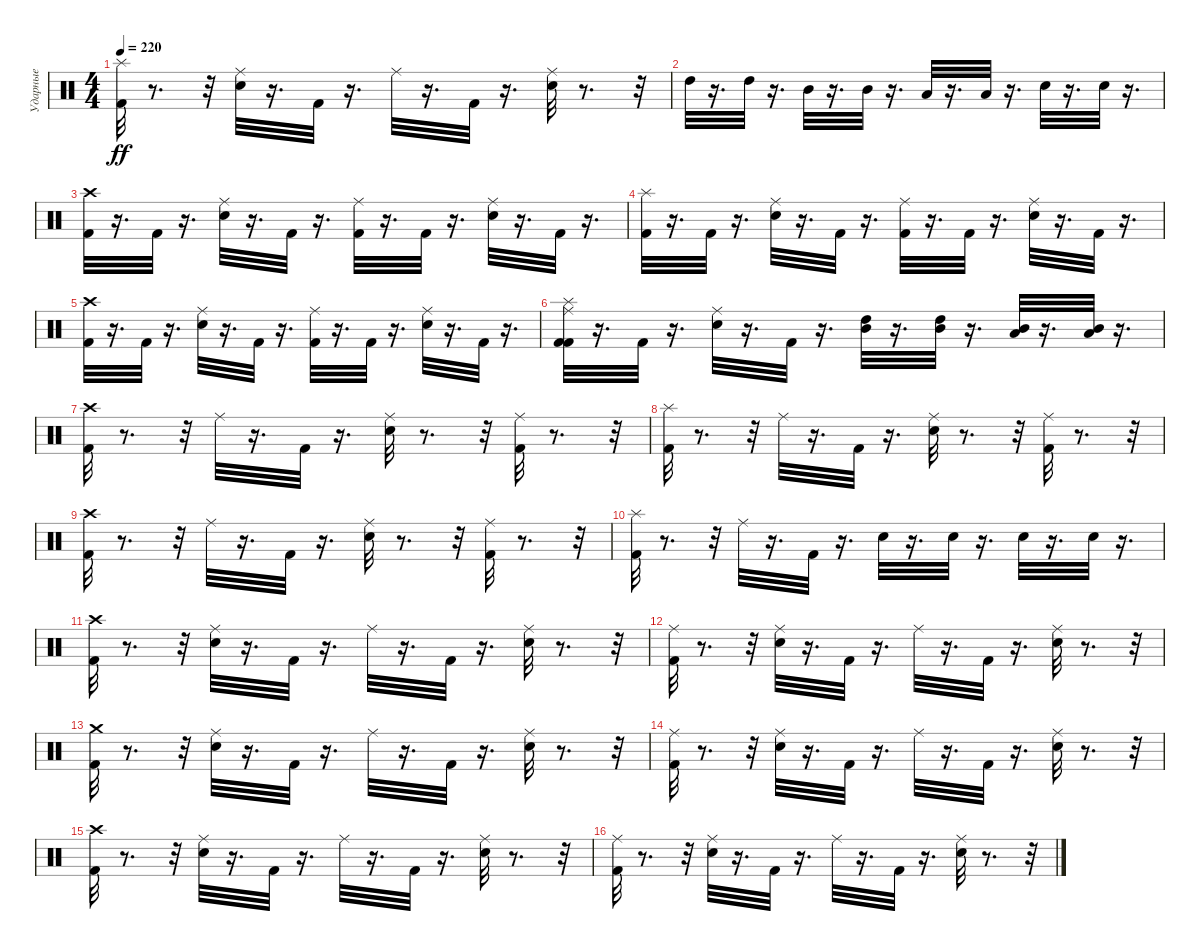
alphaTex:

\track ("Ударные" "Ударные") {instrument percussion}
\staff {score}
\articulation defaults
\ts (4 4)
\tempo 220
\clef neutral
\ks c
("Splash (hit)" "Kick (hit) 2").32{dy ff} r.8{d} r.32 ("Ride (middle)" "Snare (hit) 2").32 r.16{d} "Kick (hit) 2".32 r.16{d} "Ride (middle)".32 r.16{d} "Kick (hit) 2".32 r.16{d} ("Ride (middle)" "Snare (hit) 2").32 r.8{d} r.32 |
"High Tom (hit)".32 r.16{d} "High Tom (hit)".32 r.16{d} "Mid Tom (hit)".32 r.16{d} "Mid Tom (hit)".32 r.16{d} "Low Tom (hit)".32 r.16{d} "Low Tom (hit)".32 r.16{d} "Snare (hit) 2".32 r.16{d} "Snare (hit) 2".32 r.16{d} |
("Crash high (hit)" "Kick (hit) 2").32 r.16{d} "Kick (hit) 2".32 r.16{d} ("Ride (middle)" "Snare (hit) 2").32 r.16{d} "Kick (hit) 2".32 r.16{d} ("Ride (middle)" "Kick (hit) 2").32 r.16{d} "Kick (hit) 2".32 r.16{d} ("Snare (hit) 2" "Ride (middle)").32 r.16{d} "Kick (hit) 2".32 r.16{d} |
("Kick (hit) 2" "Splash (hit)").32 r.16{d} "Kick (hit) 2".32 r.16{d} ("Snare (hit) 2" "Ride (middle)").32 r.16{d} "Kick (hit) 2".32 r.16{d} ("Kick (hit) 2" "Ride (middle)").32 r.16{d} "Kick (hit) 2".32 r.16{d} ("Snare (hit) 2" "Ride (middle)").32 r.16{d} "Kick (hit) 2".32 r.16{d} |
("Crash high (hit)" "Kick (hit) 2").32 r.16{d} "Kick (hit) 2".32 r.16{d} ("Ride (middle)" "Snare (hit) 2").32 r.16{d} "Kick (hit) 2".32 r.16{d} ("Ride (middle)" "Kick (hit) 2").32 r.16{d} "Kick (hit) 2".32 r.16{d} ("Snare (hit) 2" "Ride (middle)").32 r.16{d} "Kick (hit) 2".32 r.16{d} |
("Ride (middle)" "Kick (hit) 2" "Kick (hit) 2" "Splash (hit)").32 r.16{d} "Kick (hit) 2".32 r.16{d} ("Ride (middle)" "Snare (hit) 2").32 r.16{d} "Kick (hit) 2".32 r.16{d} ("Mid Tom (hit)" "High Tom (hit)").32 r.16{d} ("Mid Tom (hit)" "High Tom (hit)").32 r.16{d} ("Low Tom (hit)" "Mid Tom (hit)").32 r.16{d} ("Low Tom (hit)" "Mid Tom (hit)").32 r.16{d} |
("Kick (hit) 2" "Crash high (hit)").32 r.8{d} r.32 "Ride (middle)".32 r.16{d} "Kick (hit) 2".32 r.16{d} ("Snare (hit) 2" "Ride (middle)").32 r.8{d} r.32 ("Kick (hit) 2" "Ride (middle)").32 r.8{d} r.32 |
("Splash (hit)" "Kick (hit) 2").32 r.8{d} r.32 "Ride (middle)".32 r.16{d} "Kick (hit) 2".32 r.16{d} ("Ride (middle)" "Snare (hit) 2").32 r.8{d} r.32 ("Ride (middle)" "Kick (hit) 2").32 r.8{d} r.32 |
("Kick (hit) 2" "Crash high (hit)").32 r.8{d} r.32 "Ride (middle)".32 r.16{d} "Kick (hit) 2".32 r.16{d} ("Snare (hit) 2" "Ride (middle)").32 r.8{d} r.32 ("Kick (hit) 2" "Ride (middle)").32 r.8{d} r.32 |
("Splash (hit)" "Kick (hit) 2").32 r.8{d} r.32 "Ride (middle)".32 r.16{d} "Kick (hit) 2".32 r.16{d} "Snare (hit) 2".32 r.16{d} "Snare (hit) 2".32 r.16{d} "Snare (hit) 2".32 r.16{d} "Snare (hit) 2".32 r.16{d} |
("Crash high (hit)" "Kick (hit) 2").32 r.8{d} r.32 ("Ride (middle)" "Snare (hit) 2").32 r.16{d} "Kick (hit) 2".32 r.16{d} "Ride (middle)".32 r.16{d} "Kick (hit) 2".32 r.16{d} ("Ride (middle)" "Snare (hit) 2").32 r.8{d} r.32 |
("Kick (hit) 2" "Ride (middle)").32 r.8{d} r.32 ("Snare (hit) 2" "Ride (middle)").32 r.16{d} "Kick (hit) 2".32 r.16{d} "Ride (middle)".32 r.16{d} "Kick (hit) 2".32 r.16{d} ("Snare (hit) 2" "Ride (middle)").32 r.8{d} r.32 |
("Crash medium (hit)" "Kick (hit) 2").32 r.8{d} r.32 ("Ride (middle)" "Snare (hit) 2").32 r.16{d} "Kick (hit) 2".32 r.16{d} "Ride (middle)".32 r.16{d} "Kick (hit) 2".32 r.16{d} ("Ride (middle)" "Snare (hit) 2").32 r.8{d} r.32 |
("Kick (hit) 2" "Ride (middle)").32 r.8{d} r.32 ("Snare (hit) 2" "Ride (middle)").32 r.16{d} "Kick (hit) 2".32 r.16{d} "Ride (middle)".32 r.16{d} "Kick (hit) 2".32 r.16{d} ("Snare (hit) 2" "Ride (middle)").32 r.8{d} r.32 |
("Crash high (hit)" "Kick (hit) 2").32 r.8{d} r.32 ("Ride (middle)" "Snare (hit) 2").32 r.16{d} "Kick (hit) 2".32 r.16{d} "Ride (middle)".32 r.16{d} "Kick (hit) 2".32 r.16{d} ("Ride (middle)" "Snare (hit) 2").32 r.8{d} r.32 |
("Kick (hit) 2" "Ride (middle)").32 r.8{d} r.32 ("Snare (hit) 2" "Ride (middle)").32 r.16{d} "Kick (hit) 2".32 r.16{d} "Ride (middle)".32 r.16{d} "Kick (hit) 2".32 r.16{d} ("Snare (hit) 2" "Ride (middle)").32 r.8{d} r.32
